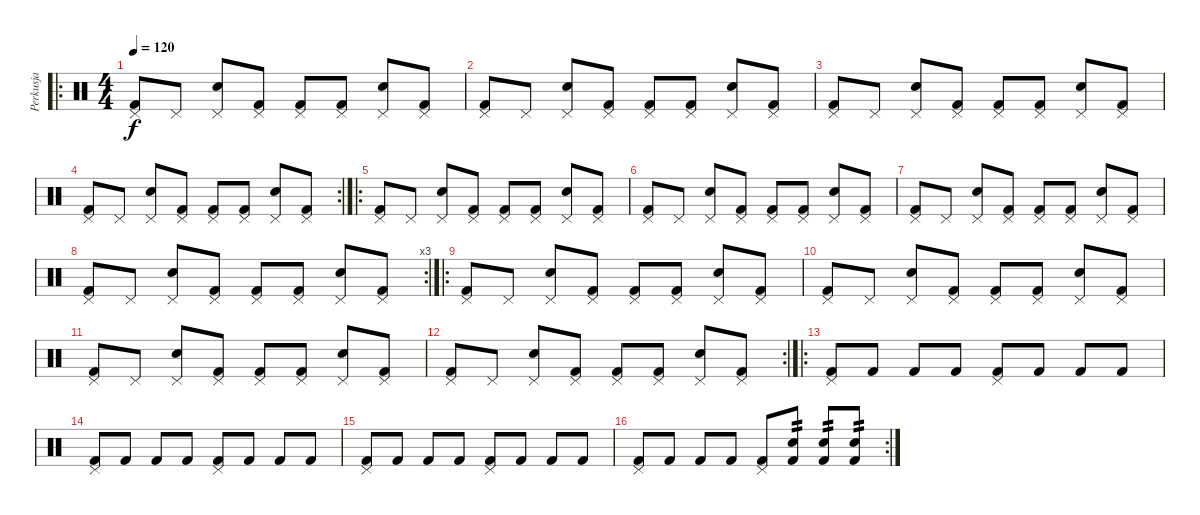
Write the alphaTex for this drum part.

\track ("Perkusja" "Perkusja") {instrument percussion}
\staff {score}
\articulation defaults
\ro
\ts (4 4)
\tempo 120
\clef neutral
\ks c
("Pedal Hi-Hat (hit)" "Kick (hit) 2").8{dy f} "Pedal Hi-Hat (hit)".8 ("Pedal Hi-Hat (hit)" "Snare (hit) 2").8 ("Pedal Hi-Hat (hit)" "Kick (hit) 2").8 ("Pedal Hi-Hat (hit)" "Kick (hit) 2").8 ("Pedal Hi-Hat (hit)" "Kick (hit) 2").8 ("Pedal Hi-Hat (hit)" "Snare (hit) 2").8 ("Pedal Hi-Hat (hit)" "Kick (hit) 2").8 |
("Pedal Hi-Hat (hit)" "Kick (hit) 2").8 "Pedal Hi-Hat (hit)".8 ("Pedal Hi-Hat (hit)" "Snare (hit) 2").8 ("Pedal Hi-Hat (hit)" "Kick (hit) 2").8 ("Pedal Hi-Hat (hit)" "Kick (hit) 2").8 ("Pedal Hi-Hat (hit)" "Kick (hit) 2").8 ("Pedal Hi-Hat (hit)" "Snare (hit) 2").8 ("Pedal Hi-Hat (hit)" "Kick (hit) 2").8 |
("Pedal Hi-Hat (hit)" "Kick (hit) 2").8 "Pedal Hi-Hat (hit)".8 ("Pedal Hi-Hat (hit)" "Snare (hit) 2").8 ("Pedal Hi-Hat (hit)" "Kick (hit) 2").8 ("Pedal Hi-Hat (hit)" "Kick (hit) 2").8 ("Pedal Hi-Hat (hit)" "Kick (hit) 2").8 ("Pedal Hi-Hat (hit)" "Snare (hit) 2").8 ("Pedal Hi-Hat (hit)" "Kick (hit) 2").8 |
\rc 2
("Pedal Hi-Hat (hit)" "Kick (hit) 2").8 "Pedal Hi-Hat (hit)".8 ("Pedal Hi-Hat (hit)" "Snare (hit) 2").8 ("Pedal Hi-Hat (hit)" "Kick (hit) 2").8 ("Pedal Hi-Hat (hit)" "Kick (hit) 2").8 ("Pedal Hi-Hat (hit)" "Kick (hit) 2").8 ("Pedal Hi-Hat (hit)" "Snare (hit) 2").8 ("Pedal Hi-Hat (hit)" "Kick (hit) 2").8 |
\ro
("Pedal Hi-Hat (hit)" "Kick (hit) 2").8 "Pedal Hi-Hat (hit)".8 ("Pedal Hi-Hat (hit)" "Snare (hit) 2").8 ("Pedal Hi-Hat (hit)" "Kick (hit) 2").8 ("Pedal Hi-Hat (hit)" "Kick (hit) 2").8 ("Pedal Hi-Hat (hit)" "Kick (hit) 2").8 ("Pedal Hi-Hat (hit)" "Snare (hit) 2").8 ("Pedal Hi-Hat (hit)" "Kick (hit) 2").8 |
("Pedal Hi-Hat (hit)" "Kick (hit) 2").8 "Pedal Hi-Hat (hit)".8 ("Pedal Hi-Hat (hit)" "Snare (hit) 2").8 ("Pedal Hi-Hat (hit)" "Kick (hit) 2").8 ("Pedal Hi-Hat (hit)" "Kick (hit) 2").8 ("Pedal Hi-Hat (hit)" "Kick (hit) 2").8 ("Pedal Hi-Hat (hit)" "Snare (hit) 2").8 ("Pedal Hi-Hat (hit)" "Kick (hit) 2").8 |
("Pedal Hi-Hat (hit)" "Kick (hit) 2").8 "Pedal Hi-Hat (hit)".8 ("Pedal Hi-Hat (hit)" "Snare (hit) 2").8 ("Pedal Hi-Hat (hit)" "Kick (hit) 2").8 ("Pedal Hi-Hat (hit)" "Kick (hit) 2").8 ("Pedal Hi-Hat (hit)" "Kick (hit) 2").8 ("Pedal Hi-Hat (hit)" "Snare (hit) 2").8 ("Pedal Hi-Hat (hit)" "Kick (hit) 2").8 |
\rc 3
("Pedal Hi-Hat (hit)" "Kick (hit) 2").8 "Pedal Hi-Hat (hit)".8 ("Pedal Hi-Hat (hit)" "Snare (hit) 2").8 ("Pedal Hi-Hat (hit)" "Kick (hit) 2").8 ("Pedal Hi-Hat (hit)" "Kick (hit) 2").8 ("Pedal Hi-Hat (hit)" "Kick (hit) 2").8 ("Pedal Hi-Hat (hit)" "Snare (hit) 2").8 ("Pedal Hi-Hat (hit)" "Kick (hit) 2").8 |
\ro
("Pedal Hi-Hat (hit)" "Kick (hit) 2").8 "Pedal Hi-Hat (hit)".8 ("Pedal Hi-Hat (hit)" "Snare (hit) 2").8 ("Pedal Hi-Hat (hit)" "Kick (hit) 2").8 ("Pedal Hi-Hat (hit)" "Kick (hit) 2").8 ("Pedal Hi-Hat (hit)" "Kick (hit) 2").8 ("Pedal Hi-Hat (hit)" "Snare (hit) 2").8 ("Pedal Hi-Hat (hit)" "Kick (hit) 2").8 |
("Pedal Hi-Hat (hit)" "Kick (hit) 2").8 "Pedal Hi-Hat (hit)".8 ("Pedal Hi-Hat (hit)" "Snare (hit) 2").8 ("Pedal Hi-Hat (hit)" "Kick (hit) 2").8 ("Pedal Hi-Hat (hit)" "Kick (hit) 2").8 ("Pedal Hi-Hat (hit)" "Kick (hit) 2").8 ("Pedal Hi-Hat (hit)" "Snare (hit) 2").8 ("Pedal Hi-Hat (hit)" "Kick (hit) 2").8 |
("Pedal Hi-Hat (hit)" "Kick (hit) 2").8 "Pedal Hi-Hat (hit)".8 ("Pedal Hi-Hat (hit)" "Snare (hit) 2").8 ("Pedal Hi-Hat (hit)" "Kick (hit) 2").8 ("Pedal Hi-Hat (hit)" "Kick (hit) 2").8 ("Pedal Hi-Hat (hit)" "Kick (hit) 2").8 ("Pedal Hi-Hat (hit)" "Snare (hit) 2").8 ("Pedal Hi-Hat (hit)" "Kick (hit) 2").8 |
\rc 2
("Pedal Hi-Hat (hit)" "Kick (hit) 2").8 "Pedal Hi-Hat (hit)".8 ("Pedal Hi-Hat (hit)" "Snare (hit) 2").8 ("Pedal Hi-Hat (hit)" "Kick (hit) 2").8 ("Pedal Hi-Hat (hit)" "Kick (hit) 2").8 ("Pedal Hi-Hat (hit)" "Kick (hit) 2").8 ("Pedal Hi-Hat (hit)" "Snare (hit) 2").8 ("Pedal Hi-Hat (hit)" "Kick (hit) 2").8 |
\ro
("Kick (hit) 2" "Pedal Hi-Hat (hit)").8 "Kick (hit) 2".8 "Kick (hit) 2".8 "Kick (hit) 2".8 ("Kick (hit) 2" "Pedal Hi-Hat (hit)").8 "Kick (hit) 2".8 "Kick (hit) 2".8 "Kick (hit) 2".8 |
("Kick (hit) 2" "Pedal Hi-Hat (hit)").8 "Kick (hit) 2".8 "Kick (hit) 2".8 "Kick (hit) 2".8 ("Kick (hit) 2" "Pedal Hi-Hat (hit)").8 "Kick (hit) 2".8 "Kick (hit) 2".8 "Kick (hit) 2".8 |
("Kick (hit) 2" "Pedal Hi-Hat (hit)").8 "Kick (hit) 2".8 "Kick (hit) 2".8 "Kick (hit) 2".8 ("Kick (hit) 2" "Pedal Hi-Hat (hit)").8 "Kick (hit) 2".8 "Kick (hit) 2".8 "Kick (hit) 2".8 |
\rc 2
("Kick (hit) 2" "Pedal Hi-Hat (hit)").8 "Kick (hit) 2".8 "Kick (hit) 2".8 "Kick (hit) 2".8 ("Kick (hit) 2" "Pedal Hi-Hat (hit)").8 ("Kick (hit) 2" "Snare (hit) 2").8{tp 2} ("Kick (hit) 2" "Snare (hit) 2").8{tp 2} ("Kick (hit) 2" "Snare (hit) 2").8{tp 2}
